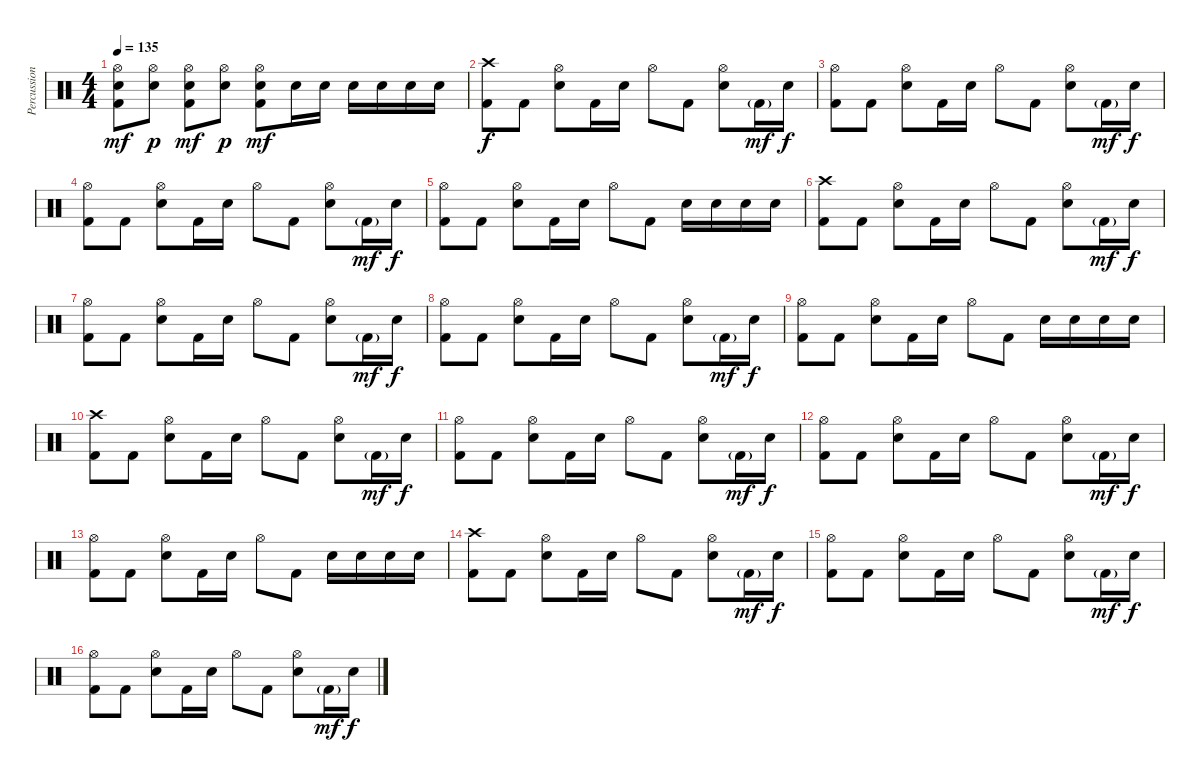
\track ("Percussions" "Percussion") {instrument percussion}
\staff {score}
\articulation defaults
\ts (4 4)
\tempo 135
\clef neutral
\ks c
("Hi-Hat (open)" "Snare (hit) 2" "Kick (hit) 2").8{dy mf} ("Hi-Hat (open)" "Snare (hit) 2").8{dy p} ("Hi-Hat (open)" "Snare (hit) 2" "Kick (hit) 2").8{dy mf} ("Hi-Hat (open)" "Snare (hit) 2").8{dy p} ("Hi-Hat (open)" "Snare (hit) 2" "Kick (hit) 2").8{dy mf} "Snare (hit) 2".16 "Snare (hit) 2".16 "Snare (hit) 2".16 "Snare (hit) 2".16 "Snare (hit) 2".16 "Snare (hit) 2".16 |
("Crash high (hit)" "Kick (hit) 2").8{dy f} "Kick (hit) 2".8 ("Hi-Hat (open)" "Snare (hit) 2").8 "Kick (hit) 2".16 "Snare (hit) 2".16 "Hi-Hat (open)".8 "Kick (hit) 2".8 ("Hi-Hat (open)" "Snare (hit) 2").8 "Kick (hit) 2"{g}.16{dy mf} "Snare (hit) 2".16{dy f} |
("Hi-Hat (open)" "Kick (hit) 2").8 "Kick (hit) 2".8 ("Hi-Hat (open)" "Snare (hit) 2").8 "Kick (hit) 2".16 "Snare (hit) 2".16 "Hi-Hat (open)".8 "Kick (hit) 2".8 ("Hi-Hat (open)" "Snare (hit) 2").8 "Kick (hit) 2"{g}.16{dy mf} "Snare (hit) 2".16{dy f} |
("Hi-Hat (open)" "Kick (hit) 2").8 "Kick (hit) 2".8 ("Hi-Hat (open)" "Snare (hit) 2").8 "Kick (hit) 2".16 "Snare (hit) 2".16 "Hi-Hat (open)".8 "Kick (hit) 2".8 ("Hi-Hat (open)" "Snare (hit) 2").8 "Kick (hit) 2"{g}.16{dy mf} "Snare (hit) 2".16{dy f} |
("Hi-Hat (open)" "Kick (hit) 2").8 "Kick (hit) 2".8 ("Hi-Hat (open)" "Snare (hit) 2").8 "Kick (hit) 2".16 "Snare (hit) 2".16 "Hi-Hat (open)".8 "Kick (hit) 2".8 "Snare (hit) 2".16 "Snare (hit) 2".16 "Snare (hit) 2".16 "Snare (hit) 2".16 |
("Crash high (hit)" "Kick (hit) 2").8 "Kick (hit) 2".8 ("Hi-Hat (open)" "Snare (hit) 2").8 "Kick (hit) 2".16 "Snare (hit) 2".16 "Hi-Hat (open)".8 "Kick (hit) 2".8 ("Hi-Hat (open)" "Snare (hit) 2").8 "Kick (hit) 2"{g}.16{dy mf} "Snare (hit) 2".16{dy f} |
("Hi-Hat (open)" "Kick (hit) 2").8 "Kick (hit) 2".8 ("Hi-Hat (open)" "Snare (hit) 2").8 "Kick (hit) 2".16 "Snare (hit) 2".16 "Hi-Hat (open)".8 "Kick (hit) 2".8 ("Hi-Hat (open)" "Snare (hit) 2").8 "Kick (hit) 2"{g}.16{dy mf} "Snare (hit) 2".16{dy f} |
("Hi-Hat (open)" "Kick (hit) 2").8 "Kick (hit) 2".8 ("Hi-Hat (open)" "Snare (hit) 2").8 "Kick (hit) 2".16 "Snare (hit) 2".16 "Hi-Hat (open)".8 "Kick (hit) 2".8 ("Hi-Hat (open)" "Snare (hit) 2").8 "Kick (hit) 2"{g}.16{dy mf} "Snare (hit) 2".16{dy f} |
("Hi-Hat (open)" "Kick (hit) 2").8 "Kick (hit) 2".8 ("Hi-Hat (open)" "Snare (hit) 2").8 "Kick (hit) 2".16 "Snare (hit) 2".16 "Hi-Hat (open)".8 "Kick (hit) 2".8 "Snare (hit) 2".16 "Snare (hit) 2".16 "Snare (hit) 2".16 "Snare (hit) 2".16 |
("Crash high (hit)" "Kick (hit) 2").8 "Kick (hit) 2".8 ("Hi-Hat (open)" "Snare (hit) 2").8 "Kick (hit) 2".16 "Snare (hit) 2".16 "Hi-Hat (open)".8 "Kick (hit) 2".8 ("Hi-Hat (open)" "Snare (hit) 2").8 "Kick (hit) 2"{g}.16{dy mf} "Snare (hit) 2".16{dy f} |
("Hi-Hat (open)" "Kick (hit) 2").8 "Kick (hit) 2".8 ("Hi-Hat (open)" "Snare (hit) 2").8 "Kick (hit) 2".16 "Snare (hit) 2".16 "Hi-Hat (open)".8 "Kick (hit) 2".8 ("Hi-Hat (open)" "Snare (hit) 2").8 "Kick (hit) 2"{g}.16{dy mf} "Snare (hit) 2".16{dy f} |
("Hi-Hat (open)" "Kick (hit) 2").8 "Kick (hit) 2".8 ("Hi-Hat (open)" "Snare (hit) 2").8 "Kick (hit) 2".16 "Snare (hit) 2".16 "Hi-Hat (open)".8 "Kick (hit) 2".8 ("Hi-Hat (open)" "Snare (hit) 2").8 "Kick (hit) 2"{g}.16{dy mf} "Snare (hit) 2".16{dy f} |
("Hi-Hat (open)" "Kick (hit) 2").8 "Kick (hit) 2".8 ("Hi-Hat (open)" "Snare (hit) 2").8 "Kick (hit) 2".16 "Snare (hit) 2".16 "Hi-Hat (open)".8 "Kick (hit) 2".8 "Snare (hit) 2".16 "Snare (hit) 2".16 "Snare (hit) 2".16 "Snare (hit) 2".16 |
("Crash high (hit)" "Kick (hit) 2").8 "Kick (hit) 2".8 ("Hi-Hat (open)" "Snare (hit) 2").8 "Kick (hit) 2".16 "Snare (hit) 2".16 "Hi-Hat (open)".8 "Kick (hit) 2".8 ("Hi-Hat (open)" "Snare (hit) 2").8 "Kick (hit) 2"{g}.16{dy mf} "Snare (hit) 2".16{dy f} |
("Hi-Hat (open)" "Kick (hit) 2").8 "Kick (hit) 2".8 ("Hi-Hat (open)" "Snare (hit) 2").8 "Kick (hit) 2".16 "Snare (hit) 2".16 "Hi-Hat (open)".8 "Kick (hit) 2".8 ("Hi-Hat (open)" "Snare (hit) 2").8 "Kick (hit) 2"{g}.16{dy mf} "Snare (hit) 2".16{dy f} |
("Hi-Hat (open)" "Kick (hit) 2").8 "Kick (hit) 2".8 ("Hi-Hat (open)" "Snare (hit) 2").8 "Kick (hit) 2".16 "Snare (hit) 2".16 "Hi-Hat (open)".8 "Kick (hit) 2".8 ("Hi-Hat (open)" "Snare (hit) 2").8 "Kick (hit) 2"{g}.16{dy mf} "Snare (hit) 2".16{dy f}
